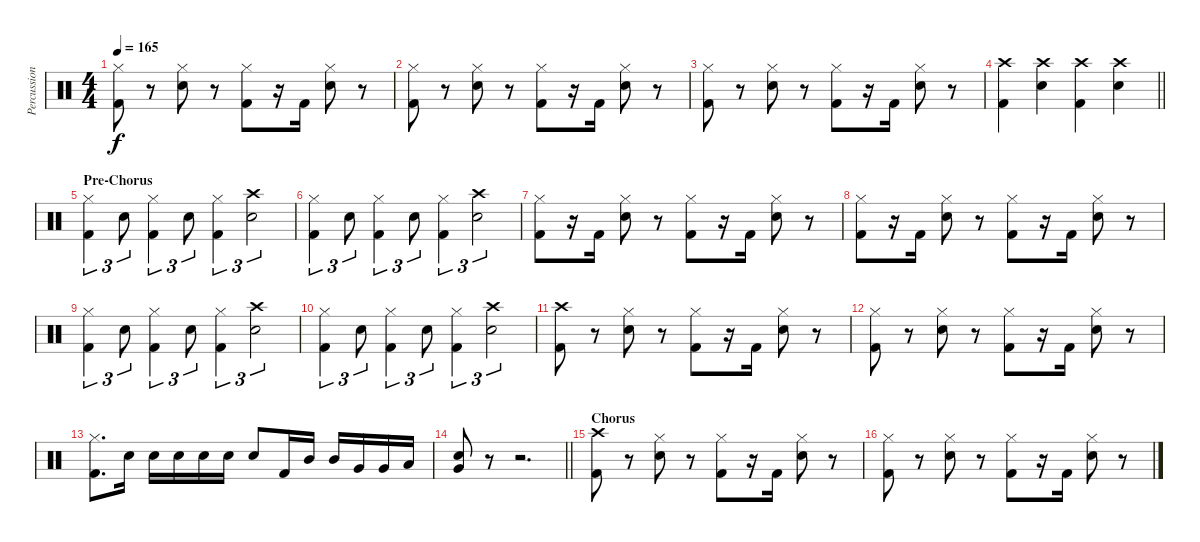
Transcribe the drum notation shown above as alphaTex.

\track ("Percussion" "Percussion") {instrument percussion}
\staff {score}
\articulation defaults
\ts (4 4)
\tempo 165
\clef neutral
\ks c
("Hi-Hat (closed)" "Kick (hit) 2").8{dy f} r.8 ("Hi-Hat (closed)" "Snare (hit) 2").8 r.8 ("Hi-Hat (closed)" "Kick (hit) 2").8 r.16 "Kick (hit) 2".16 ("Hi-Hat (closed)" "Snare (hit) 2").8 r.8 |
("Hi-Hat (closed)" "Kick (hit) 2").8 r.8 ("Hi-Hat (closed)" "Snare (hit) 2").8 r.8 ("Hi-Hat (closed)" "Kick (hit) 2").8 r.16 "Kick (hit) 2".16 ("Hi-Hat (closed)" "Snare (hit) 2").8 r.8 |
("Hi-Hat (closed)" "Kick (hit) 2").8 r.8 ("Hi-Hat (closed)" "Snare (hit) 2").8 r.8 ("Hi-Hat (closed)" "Kick (hit) 2").8 r.16 "Kick (hit) 2".16 ("Hi-Hat (closed)" "Snare (hit) 2").8 r.8 |
\barLineRight lightlight
("Crash high (hit)" "Kick (hit) 2").4 ("Crash high (hit)" "Snare (hit) 2").4 ("Crash high (hit)" "Kick (hit) 2").4 ("Crash high (hit)" "Snare (hit) 2").4 |
\section ("" "Pre-Chorus")
("Hi-Hat (closed)" "Kick (hit) 2").4{tu (3 2)} "Snare (hit) 2".8{tu (3 2)} ("Hi-Hat (closed)" "Kick (hit) 2").4{tu (3 2)} "Snare (hit) 2".8{tu (3 2)} ("Hi-Hat (closed)" "Kick (hit) 2").4{tu (3 2)} ("Crash high (hit)" "Snare (hit) 2").2{tu (3 2)} |
("Hi-Hat (closed)" "Kick (hit) 2").4{tu (3 2)} "Snare (hit) 2".8{tu (3 2)} ("Hi-Hat (closed)" "Kick (hit) 2").4{tu (3 2)} "Snare (hit) 2".8{tu (3 2)} ("Hi-Hat (closed)" "Kick (hit) 2").4{tu (3 2)} ("Crash high (hit)" "Snare (hit) 2").2{tu (3 2)} |
("Hi-Hat (closed)" "Kick (hit) 2").8 r.16 "Kick (hit) 2".16 ("Hi-Hat (closed)" "Snare (hit) 2").8 r.8 ("Hi-Hat (closed)" "Kick (hit) 2").8 r.16 "Kick (hit) 2".16 ("Hi-Hat (closed)" "Snare (hit) 2").8 r.8 |
("Hi-Hat (closed)" "Kick (hit) 2").8 r.16 "Kick (hit) 2".16 ("Hi-Hat (closed)" "Snare (hit) 2").8 r.8 ("Hi-Hat (closed)" "Kick (hit) 2").8 r.16 "Kick (hit) 2".16 ("Hi-Hat (closed)" "Snare (hit) 2").8 r.8 |
("Hi-Hat (closed)" "Kick (hit) 2").4{tu (3 2)} "Snare (hit) 2".8{tu (3 2)} ("Hi-Hat (closed)" "Kick (hit) 2").4{tu (3 2)} "Snare (hit) 2".8{tu (3 2)} ("Hi-Hat (closed)" "Kick (hit) 2").4{tu (3 2)} ("Crash high (hit)" "Snare (hit) 2").2{tu (3 2)} |
("Hi-Hat (closed)" "Kick (hit) 2").4{tu (3 2)} "Snare (hit) 2".8{tu (3 2)} ("Hi-Hat (closed)" "Kick (hit) 2").4{tu (3 2)} "Snare (hit) 2".8{tu (3 2)} ("Hi-Hat (closed)" "Kick (hit) 2").4{tu (3 2)} ("Crash high (hit)" "Snare (hit) 2").2{tu (3 2)} |
("Crash high (hit)" "Kick (hit) 2").8 r.8 ("Hi-Hat (closed)" "Snare (hit) 2").8 r.8 ("Hi-Hat (closed)" "Kick (hit) 2").8 r.16 "Kick (hit) 2".16 ("Hi-Hat (closed)" "Snare (hit) 2").8 r.8 |
("Hi-Hat (closed)" "Kick (hit) 2").8 r.8 ("Hi-Hat (closed)" "Snare (hit) 2").8 r.8 ("Hi-Hat (closed)" "Kick (hit) 2").8 r.16 "Kick (hit) 2".16 ("Hi-Hat (closed)" "Snare (hit) 2").8 r.8 |
("Hi-Hat (closed)" "Kick (hit) 2").8{d} "Snare (hit) 2".16 "Snare (hit) 2".16 "Snare (hit) 2".16 "Snare (hit) 2".16 "Snare (hit) 2".16 "Snare (hit) 2".8 "Kick (hit) 2".16 "Mid Tom (hit)".16 "Mid Tom (hit)".16 "Very Low Tom (hit)".16 "Very Low Tom (hit)".16 "Low Floor Tom (hit)".16 |
\barLineRight lightlight
("Very Low Tom (hit)" "Snare (hit) 2").8 r.8 r.2{d} |
\section ("" "Chorus")
("Crash high (hit)" "Kick (hit) 2").8 r.8 ("Hi-Hat (closed)" "Snare (hit) 2").8 r.8 ("Hi-Hat (closed)" "Kick (hit) 2").8 r.16 "Kick (hit) 2".16 ("Hi-Hat (closed)" "Snare (hit) 2").8 r.8 |
("Hi-Hat (closed)" "Kick (hit) 2").8 r.8 ("Hi-Hat (closed)" "Snare (hit) 2").8 r.8 ("Hi-Hat (closed)" "Kick (hit) 2").8 r.16 "Kick (hit) 2".16 ("Hi-Hat (closed)" "Snare (hit) 2").8 r.8
